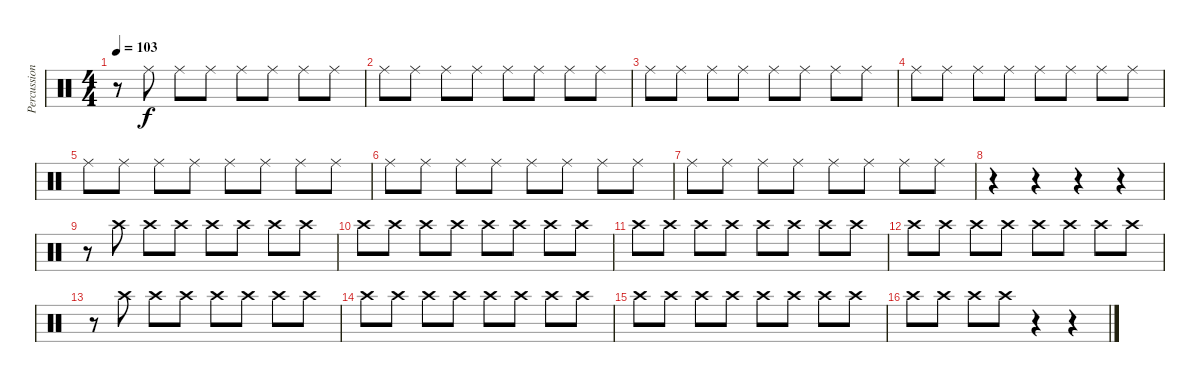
\track ("Percussion2" "Percussion") {instrument percussion}
\staff {score}
\articulation defaults
\ts (4 4)
\tempo 103
\clef neutral
\ks c
r.8{dy f} "Ride (middle)".8 "Ride (middle)".8 "Ride (middle)".8 "Ride (middle)".8 "Ride (middle)".8 "Ride (middle)".8 "Ride (middle)".8 |
"Ride (middle)".8 "Ride (middle)".8 "Ride (middle)".8 "Ride (middle)".8 "Ride (middle)".8 "Ride (middle)".8 "Ride (middle)".8 "Ride (middle)".8 |
"Ride (middle)".8 "Ride (middle)".8 "Ride (middle)".8 "Ride (middle)".8 "Ride (middle)".8 "Ride (middle)".8 "Ride (middle)".8 "Ride (middle)".8 |
"Ride (middle)".8 "Ride (middle)".8 "Ride (middle)".8 "Ride (middle)".8 "Ride (middle)".8 "Ride (middle)".8 "Ride (middle)".8 "Ride (middle)".8 |
"Ride (middle)".8 "Ride (middle)".8 "Ride (middle)".8 "Ride (middle)".8 "Ride (middle)".8 "Ride (middle)".8 "Ride (middle)".8 "Ride (middle)".8 |
"Ride (middle)".8 "Ride (middle)".8 "Ride (middle)".8 "Ride (middle)".8 "Ride (middle)".8 "Ride (middle)".8 "Ride (middle)".8 "Ride (middle)".8 |
"Ride (middle)".8 "Ride (middle)".8 "Ride (middle)".8 "Ride (middle)".8 "Ride (middle)".8 "Ride (middle)".8 "Ride (middle)".8 "Ride (middle)".8 |
r.4 r.4 r.4 r.4 |
r.8 "Crash high (hit)".8 "Crash high (hit)".8 "Crash high (hit)".8 "Crash high (hit)".8 "Crash high (hit)".8 "Crash high (hit)".8 "Crash high (hit)".8 |
"Crash high (hit)".8 "Crash high (hit)".8 "Crash high (hit)".8 "Crash high (hit)".8 "Crash high (hit)".8 "Crash high (hit)".8 "Crash high (hit)".8 "Crash high (hit)".8 |
"Crash high (hit)".8 "Crash high (hit)".8 "Crash high (hit)".8 "Crash high (hit)".8 "Crash high (hit)".8 "Crash high (hit)".8 "Crash high (hit)".8 "Crash high (hit)".8 |
"Crash high (hit)".8 "Crash high (hit)".8 "Crash high (hit)".8 "Crash high (hit)".8 "Crash high (hit)".8 "Crash high (hit)".8 "Crash high (hit)".8 "Crash high (hit)".8 |
r.8 "Crash high (hit)".8 "Crash high (hit)".8 "Crash high (hit)".8 "Crash high (hit)".8 "Crash high (hit)".8 "Crash high (hit)".8 "Crash high (hit)".8 |
"Crash high (hit)".8 "Crash high (hit)".8 "Crash high (hit)".8 "Crash high (hit)".8 "Crash high (hit)".8 "Crash high (hit)".8 "Crash high (hit)".8 "Crash high (hit)".8 |
"Crash high (hit)".8 "Crash high (hit)".8 "Crash high (hit)".8 "Crash high (hit)".8 "Crash high (hit)".8 "Crash high (hit)".8 "Crash high (hit)".8 "Crash high (hit)".8 |
"Crash high (hit)".8 "Crash high (hit)".8 "Crash high (hit)".8 "Crash high (hit)".8 r.4 r.4
